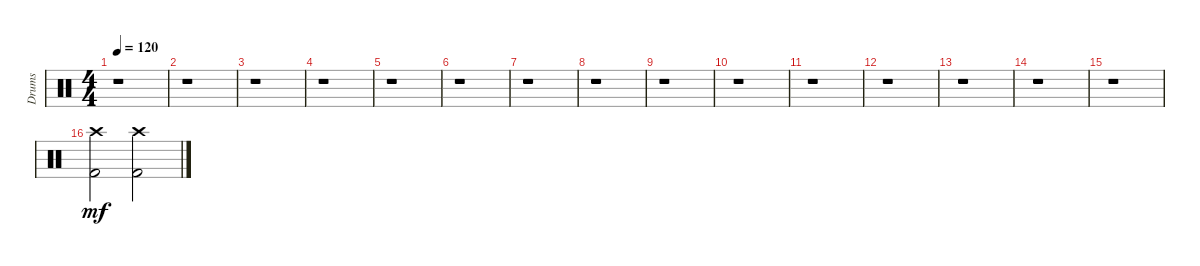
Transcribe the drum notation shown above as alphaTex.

\track ("Drums" "Drums") {instrument percussion}
\staff {score}
\articulation defaults
\ts (4 4)
\tempo 120
\clef neutral
\ks c
r.1{dy mf} |
r.1 |
r.1 |
r.1 |
r.1 |
r.1 |
r.1 |
r.1 |
r.1 |
r.1 |
r.1 |
r.1 |
r.1 |
r.1 |
r.1 |
("Crash high (hit)" "Kick (hit) 2").2 ("Crash high (hit)" "Kick (hit) 2").2
